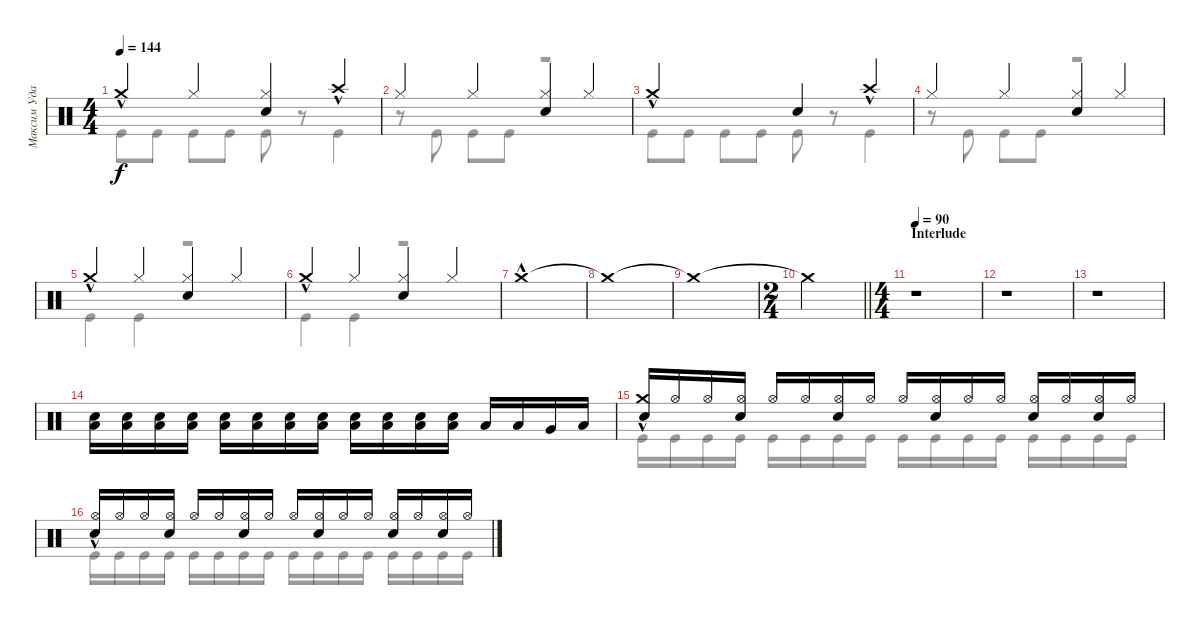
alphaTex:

\track ("Максим Удалов" "Максим Уда") {instrument percussion}
\staff {score}
\articulation defaults
\voice
\ts (4 4)
\tempo 144
\clef neutral
\ks c "Crash medium (hit)"{hac}.4{dy f} "Hi-Hat (closed)".4
("Snare (hit) 2" "Hi-Hat (closed)").4 "Crash high (hit)"{hac}.4 |
"Hi-Hat (closed)".4 "Hi-Hat (closed)".4 ("Hi-Hat (closed)" "Snare (hit) 2").4 "Hi-Hat (closed)".4 |
"Crash medium (hit)"{hac}.2 "Snare (hit) 2".4 "Crash high (hit)"{hac}.4 |
"Hi-Hat (closed)".4 "Hi-Hat (closed)".4 ("Hi-Hat (closed)" "Snare (hit) 2").4 "Hi-Hat (closed)".4 |
"Crash medium (hit)"{hac}.4 "Hi-Hat (closed)".4 ("Hi-Hat (closed)" "Snare (hit) 2").4 "Hi-Hat (closed)".4 |
"Crash medium (hit)"{hac}.4 "Hi-Hat (closed)".4 ("Hi-Hat (closed)" "Snare (hit) 2").4 "Hi-Hat (closed)".4 |
"Crash medium (hit)"{hac}.1 |
"Crash medium (hit)"{t}.1 |
"Crash medium (hit)"{t}.1 |
\ts (2 4)
\barLineRight lightlight "Crash medium (hit)"{t}.2
|
\ts (4 4)
\section ("" "Interlude")
\tempo 90
r.1 |
r.1 |
r.1 |
("Snare (hit) 2" "Low Floor Tom (hit)").16{volume 12} ("Snare (hit) 2" "Low Floor Tom (hit)").16 ("Snare (hit) 2" "Low Floor Tom (hit)").16 ("Snare (hit) 2" "Low Floor Tom (hit)").16 ("Snare (hit) 2" "Low Floor Tom (hit)").16 ("Snare (hit) 2" "Low Floor Tom (hit)").16 ("Snare (hit) 2" "Low Floor Tom (hit)").16 ("Snare (hit) 2" "Low Floor Tom (hit)").16 ("Snare (hit) 2" "Low Floor Tom (hit)").16 ("Snare (hit) 2" "Low Floor Tom (hit)").16 ("Snare (hit) 2" "Low Floor Tom (hit)").16 ("Snare (hit) 2" "Low Floor Tom (hit)").16 "Low Tom (hit)".16 "Low Tom (hit)".16 "Very Low Tom (hit)".16 "Low Floor Tom (hit)".16 |
("Snare (hit) 2" "Crash medium (hit)"{hac}).16 "Hi-Hat (open)".16 "Hi-Hat (open)".16 ("Hi-Hat (open)" "Snare (hit) 2").16 "Hi-Hat (open)".16 "Hi-Hat (open)".16 ("Hi-Hat (open)" "Snare (hit) 2").16 "Hi-Hat (open)".16 "Hi-Hat (open)".16 ("Hi-Hat (open)" "Snare (hit) 2").16 "Hi-Hat (open)".16 "Hi-Hat (open)".16 ("Hi-Hat (open)" "Snare (hit) 2").16 "Hi-Hat (open)".16 ("Hi-Hat (open)" "Snare (hit) 2").16 "Hi-Hat (open)".16 |
("Snare (hit) 2" "Hi-Hat (open)"{hac}).16 "Hi-Hat (open)".16 "Hi-Hat (open)".16 ("Hi-Hat (open)" "Snare (hit) 2").16 "Hi-Hat (open)".16 "Hi-Hat (open)".16 ("Hi-Hat (open)" "Snare (hit) 2").16 "Hi-Hat (open)".16 "Hi-Hat (open)".16 ("Hi-Hat (open)" "Snare (hit) 2").16 "Hi-Hat (open)".16 "Hi-Hat (open)".16 ("Hi-Hat (open)" "Snare (hit) 2").16 "Hi-Hat (open)".16 ("Hi-Hat (open)" "Snare (hit) 2").16 "Hi-Hat (open)".16
\voice
\clef neutral
\ottava regular
\simile none
\ks c "Kick (hit)".8{dy f} "Kick (hit)".8 "Kick (hit)".8 "Kick (hit)".8 "Kick (hit)".8
r.8 "Kick (hit)".4 |
r.8 "Kick (hit)".8 "Kick (hit)".8 "Kick (hit)".8 r.2 |
"Kick (hit)".8 "Kick (hit)".8 "Kick (hit)".8 "Kick (hit)".8 "Kick (hit)".8 r.8 "Kick (hit)".4 |
r.8 "Kick (hit)".8 "Kick (hit)".8 "Kick (hit)".8 r.2 |
"Kick (hit)".4 "Kick (hit)".4 r.2 |
"Kick (hit)".4 "Kick (hit)".4 r.2 |
|
|
|
\barLineRight lightlight
|
|
|
|
|
"Kick (hit)".16 "Kick (hit)".16 "Kick (hit)".16 "Kick (hit)".16 "Kick (hit)".16 "Kick (hit)".16 "Kick (hit)".16 "Kick (hit)".16 "Kick (hit)".16 "Kick (hit)".16 "Kick (hit)".16 "Kick (hit)".16 "Kick (hit)".16 "Kick (hit)".16 "Kick (hit)".16 "Kick (hit)".16 |
"Kick (hit)".16 "Kick (hit)".16 "Kick (hit)".16 "Kick (hit)".16 "Kick (hit)".16 "Kick (hit)".16 "Kick (hit)".16 "Kick (hit)".16 "Kick (hit)".16 "Kick (hit)".16 "Kick (hit)".16 "Kick (hit)".16 "Kick (hit)".16 "Kick (hit)".16 "Kick (hit)".16 "Kick (hit)".16
